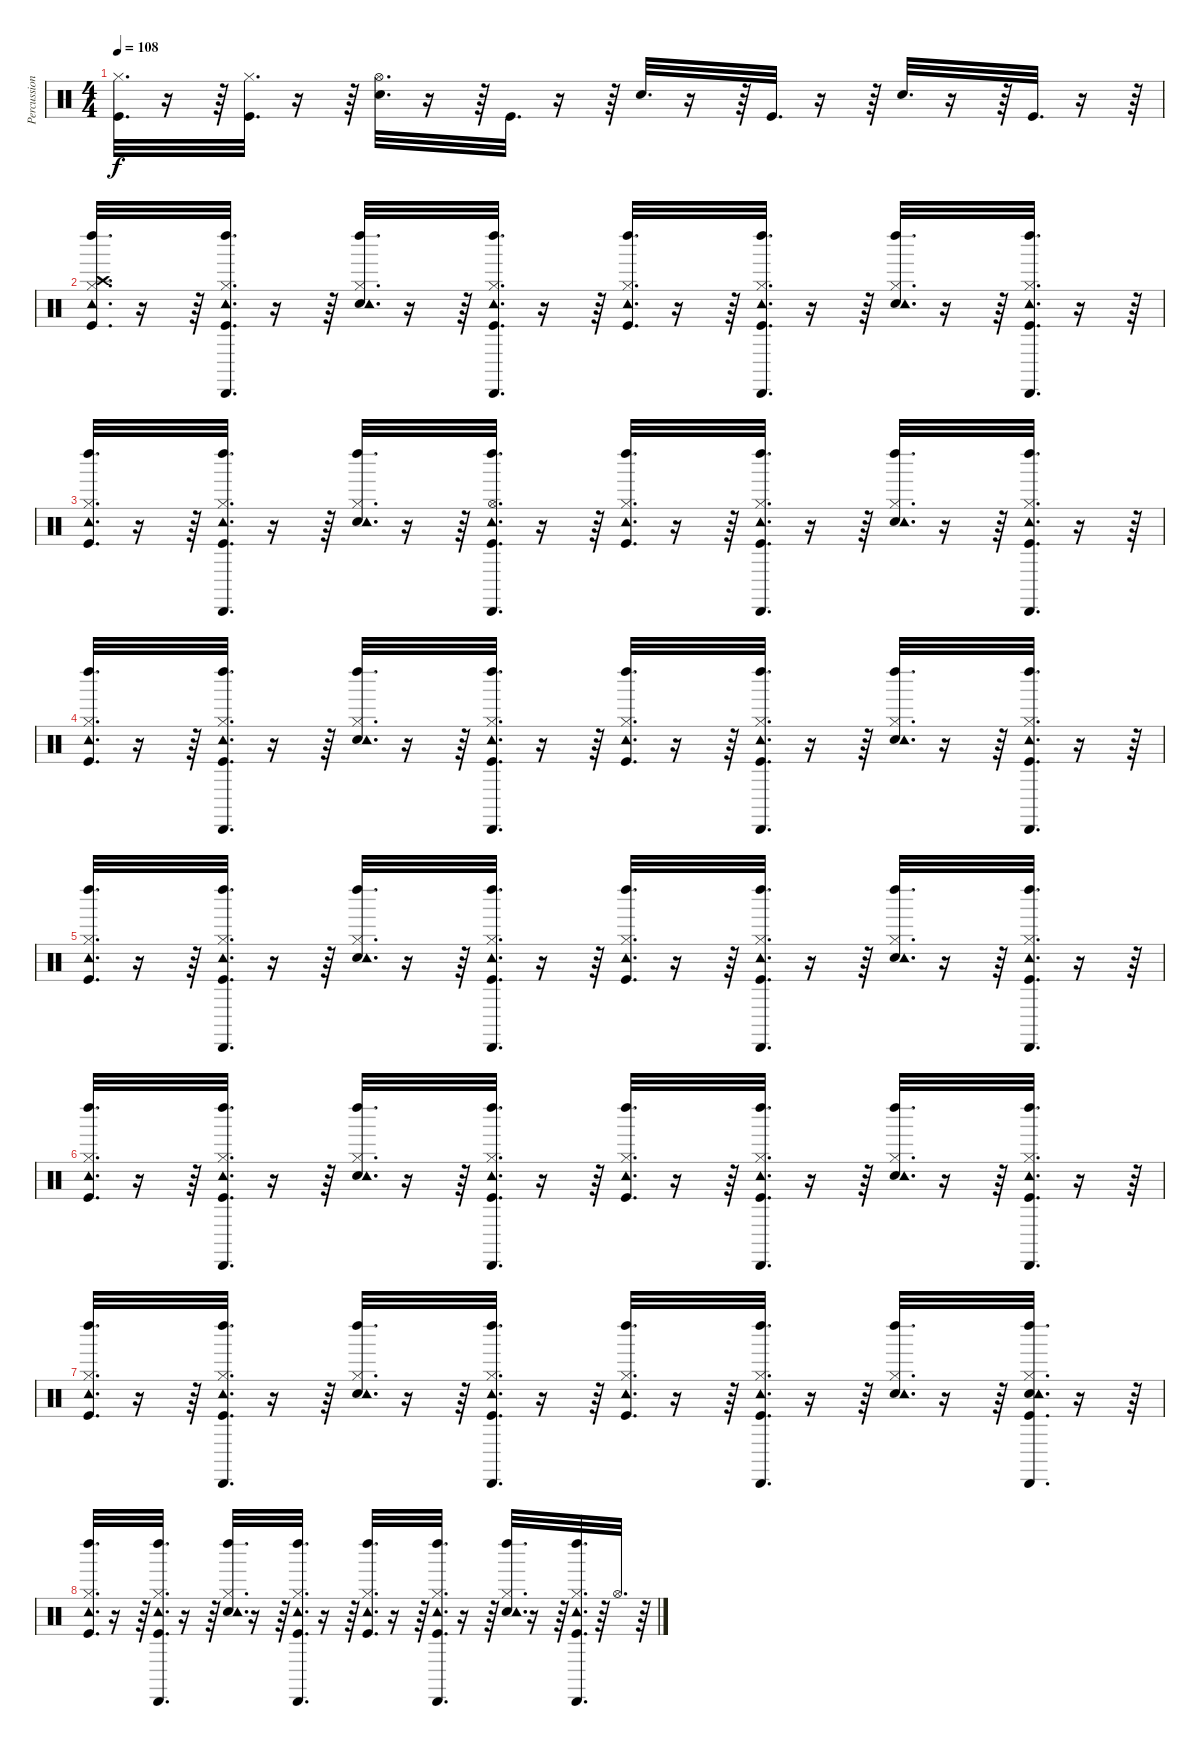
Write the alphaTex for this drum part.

\track ("Percussions" "Percussion") {instrument percussion}
\staff {score}
\articulation defaults
\ts (4 4)
\tempo 108
\clef neutral
\ks c
("Hi-Hat (closed)" "Kick (hit)").32{d dy f} r.16 r.64 ("Hi-Hat (closed)" "Kick (hit)").32{d} r.16 r.64 ("Hi-Hat (open)" "Snare (hit) 2").32{d} r.16 r.64 "Kick (hit)".32{d} r.16 r.64 "Snare (hit) 2".32{d} r.16 r.64 "Kick (hit)".32{d} r.16 r.64 "Snare (hit) 2".32{d} r.16 r.64 "Kick (hit)".32{d} r.16 r.64 |
("Left Maraca (hit)" "Crash high (hit)" "Kick (hit)" "Hi-Hat (closed)" "Tambourine (hit)").32{d} r.16 r.64 ("Cabasa (hit)" "Tambourine (hit)" "Kick (hit)" "Hi-Hat (closed)" "Left Maraca (hit)").32{d} r.16 r.64 ("Left Maraca (hit)" "Snare (hit) 2" "Hi-Hat (closed)" "Tambourine (hit)").32{d} r.16 r.64 ("Cabasa (hit)" "Tambourine (hit)" "Kick (hit)" "Hi-Hat (closed)" "Left Maraca (hit)").32{d} r.16 r.64 ("Left Maraca (hit)" "Kick (hit)" "Hi-Hat (closed)" "Tambourine (hit)").32{d} r.16 r.64 ("Cabasa (hit)" "Tambourine (hit)" "Kick (hit)" "Hi-Hat (closed)" "Left Maraca (hit)").32{d} r.16 r.64 ("Left Maraca (hit)" "Snare (hit) 2" "Hi-Hat (closed)" "Tambourine (hit)").32{d} r.16 r.64 ("Cabasa (hit)" "Tambourine (hit)" "Kick (hit)" "Hi-Hat (closed)" "Left Maraca (hit)").32{d} r.16 r.64 |
("Left Maraca (hit)" "Kick (hit)" "Hi-Hat (closed)" "Tambourine (hit)").32{d} r.16 r.64 ("Cabasa (hit)" "Tambourine (hit)" "Kick (hit)" "Hi-Hat (closed)" "Left Maraca (hit)").32{d} r.16 r.64 ("Left Maraca (hit)" "Snare (hit) 2" "Hi-Hat (closed)" "Tambourine (hit)").32{d} r.16 r.64 ("Cabasa (hit)" "Tambourine (hit)" "Kick (hit)" "Hi-Hat (open)" "Left Maraca (hit)").32{d} r.16 r.64 ("Left Maraca (hit)" "Kick (hit)" "Hi-Hat (closed)" "Tambourine (hit)").32{d} r.16 r.64 ("Cabasa (hit)" "Tambourine (hit)" "Kick (hit)" "Hi-Hat (closed)" "Left Maraca (hit)").32{d} r.16 r.64 ("Left Maraca (hit)" "Snare (hit) 2" "Hi-Hat (closed)" "Tambourine (hit)").32{d} r.16 r.64 ("Cabasa (hit)" "Tambourine (hit)" "Kick (hit)" "Hi-Hat (closed)" "Left Maraca (hit)").32{d} r.16 r.64 |
("Left Maraca (hit)" "Kick (hit)" "Hi-Hat (closed)" "Tambourine (hit)").32{d} r.16 r.64 ("Cabasa (hit)" "Tambourine (hit)" "Kick (hit)" "Hi-Hat (closed)" "Left Maraca (hit)").32{d} r.16 r.64 ("Left Maraca (hit)" "Snare (hit) 2" "Hi-Hat (closed)" "Tambourine (hit)").32{d} r.16 r.64 ("Cabasa (hit)" "Tambourine (hit)" "Kick (hit)" "Hi-Hat (closed)" "Left Maraca (hit)").32{d} r.16 r.64 ("Left Maraca (hit)" "Kick (hit)" "Hi-Hat (closed)" "Tambourine (hit)").32{d} r.16 r.64 ("Cabasa (hit)" "Tambourine (hit)" "Kick (hit)" "Hi-Hat (closed)" "Left Maraca (hit)").32{d} r.16 r.64 ("Left Maraca (hit)" "Snare (hit) 2" "Hi-Hat (closed)" "Tambourine (hit)").32{d} r.16 r.64 ("Cabasa (hit)" "Tambourine (hit)" "Kick (hit)" "Hi-Hat (closed)" "Left Maraca (hit)").32{d} r.16 r.64 |
("Left Maraca (hit)" "Kick (hit)" "Hi-Hat (closed)" "Tambourine (hit)").32{d} r.16 r.64 ("Cabasa (hit)" "Tambourine (hit)" "Kick (hit)" "Hi-Hat (closed)" "Left Maraca (hit)").32{d} r.16 r.64 ("Left Maraca (hit)" "Snare (hit) 2" "Hi-Hat (closed)" "Tambourine (hit)").32{d} r.16 r.64 ("Cabasa (hit)" "Tambourine (hit)" "Kick (hit)" "Hi-Hat (closed)" "Left Maraca (hit)").32{d} r.16 r.64 ("Left Maraca (hit)" "Kick (hit)" "Hi-Hat (closed)" "Tambourine (hit)").32{d} r.16 r.64 ("Cabasa (hit)" "Tambourine (hit)" "Kick (hit)" "Hi-Hat (closed)" "Left Maraca (hit)").32{d} r.16 r.64 ("Left Maraca (hit)" "Snare (hit) 2" "Hi-Hat (closed)" "Tambourine (hit)").32{d} r.16 r.64 ("Cabasa (hit)" "Tambourine (hit)" "Kick (hit)" "Hi-Hat (closed)" "Left Maraca (hit)").32{d} r.16 r.64 |
("Left Maraca (hit)" "Kick (hit)" "Hi-Hat (closed)" "Tambourine (hit)").32{d} r.16 r.64 ("Cabasa (hit)" "Tambourine (hit)" "Kick (hit)" "Hi-Hat (closed)" "Left Maraca (hit)").32{d} r.16 r.64 ("Left Maraca (hit)" "Snare (hit) 2" "Hi-Hat (closed)" "Tambourine (hit)").32{d} r.16 r.64 ("Cabasa (hit)" "Tambourine (hit)" "Kick (hit)" "Hi-Hat (closed)" "Left Maraca (hit)").32{d} r.16 r.64 ("Left Maraca (hit)" "Kick (hit)" "Hi-Hat (closed)" "Tambourine (hit)").32{d} r.16 r.64 ("Cabasa (hit)" "Tambourine (hit)" "Kick (hit)" "Hi-Hat (closed)" "Left Maraca (hit)").32{d} r.16 r.64 ("Left Maraca (hit)" "Snare (hit) 2" "Hi-Hat (closed)" "Tambourine (hit)").32{d} r.16 r.64 ("Cabasa (hit)" "Tambourine (hit)" "Kick (hit)" "Hi-Hat (closed)" "Left Maraca (hit)").32{d} r.16 r.64 |
("Left Maraca (hit)" "Kick (hit)" "Hi-Hat (closed)" "Tambourine (hit)").32{d} r.16 r.64 ("Cabasa (hit)" "Tambourine (hit)" "Kick (hit)" "Hi-Hat (closed)" "Left Maraca (hit)").32{d} r.16 r.64 ("Left Maraca (hit)" "Snare (hit) 2" "Hi-Hat (closed)" "Tambourine (hit)").32{d} r.16 r.64 ("Cabasa (hit)" "Tambourine (hit)" "Kick (hit)" "Hi-Hat (closed)" "Left Maraca (hit)").32{d} r.16 r.64 ("Left Maraca (hit)" "Kick (hit)" "Hi-Hat (closed)" "Tambourine (hit)").32{d} r.16 r.64 ("Cabasa (hit)" "Tambourine (hit)" "Kick (hit)" "Hi-Hat (closed)" "Left Maraca (hit)").32{d} r.16 r.64 ("Left Maraca (hit)" "Snare (hit) 2" "Hi-Hat (closed)" "Tambourine (hit)").32{d} r.16 r.64 ("Cabasa (hit)" "Snare (hit) 2" "Hi-Hat (closed)" "Kick (hit)" "Left Maraca (hit)" "Tambourine (hit)").32{d} r.16 r.64 |
("Left Maraca (hit)" "Kick (hit)" "Hi-Hat (closed)" "Tambourine (hit)").32{d} r.16 r.64 ("Cabasa (hit)" "Tambourine (hit)" "Kick (hit)" "Hi-Hat (closed)" "Left Maraca (hit)").32{d} r.16 r.64 ("Left Maraca (hit)" "Snare (hit) 2" "Hi-Hat (closed)" "Tambourine (hit)").32{d} r.16 r.64 ("Cabasa (hit)" "Tambourine (hit)" "Kick (hit)" "Hi-Hat (closed)" "Left Maraca (hit)").32{d} r.16 r.64 ("Left Maraca (hit)" "Kick (hit)" "Hi-Hat (closed)" "Tambourine (hit)").32{d} r.16 r.64 ("Cabasa (hit)" "Tambourine (hit)" "Kick (hit)" "Hi-Hat (closed)" "Left Maraca (hit)").32{d} r.16 r.64 ("Left Maraca (hit)" "Snare (hit) 2" "Hi-Hat (closed)" "Tambourine (hit)").32{d} r.16 r.64 ("Cabasa (hit)" "Tambourine (hit)" "Kick (hit)" "Hi-Hat (closed)" "Left Maraca (hit)").32{d} r.64 "Hi-Hat (open)".32{d} r.64
